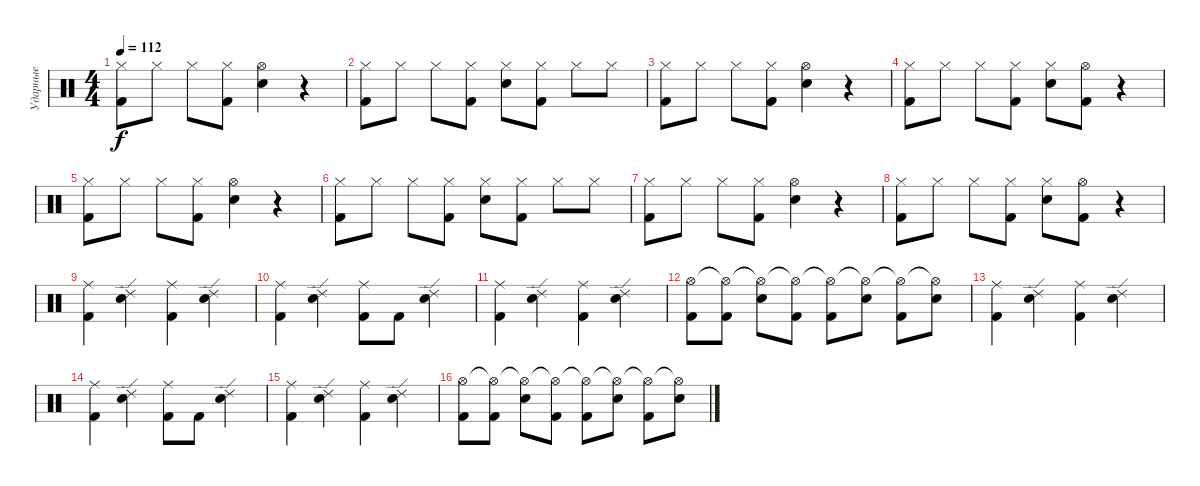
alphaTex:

\track ("Ударные" "Ударные") {instrument percussion}
\staff {score}
\articulation defaults
\ts (4 4)
\tempo 112
\clef neutral
\ks c
("Hi-Hat (closed)" "Kick (hit) 2").8{dy f} "Hi-Hat (closed)".8 "Hi-Hat (closed)".8 ("Hi-Hat (closed)" "Kick (hit) 2").8 ("Hi-Hat (open)" "Snare (hit) 2").4 r.4 |
("Hi-Hat (closed)" "Kick (hit) 2").8 "Hi-Hat (closed)".8 "Hi-Hat (closed)".8 ("Hi-Hat (closed)" "Kick (hit) 2").8 ("Hi-Hat (closed)" "Snare (hit) 2").8 ("Hi-Hat (closed)" "Kick (hit) 2").8 "Hi-Hat (closed)".8 "Hi-Hat (closed)".8 |
("Hi-Hat (closed)" "Kick (hit) 2").8 "Hi-Hat (closed)".8 "Hi-Hat (closed)".8 ("Hi-Hat (closed)" "Kick (hit) 2").8 ("Hi-Hat (open)" "Snare (hit) 2").4 r.4 |
("Hi-Hat (closed)" "Kick (hit) 2").8 "Hi-Hat (closed)".8 "Hi-Hat (closed)".8 ("Hi-Hat (closed)" "Kick (hit) 2").8 ("Hi-Hat (closed)" "Snare (hit) 2").8 ("Hi-Hat (open)" "Kick (hit) 2").8 r.4 |
("Hi-Hat (closed)" "Kick (hit) 2").8 "Hi-Hat (closed)".8 "Hi-Hat (closed)".8 ("Hi-Hat (closed)" "Kick (hit) 2").8 ("Hi-Hat (open)" "Snare (hit) 2").4 r.4 |
("Hi-Hat (closed)" "Kick (hit) 2").8 "Hi-Hat (closed)".8 "Hi-Hat (closed)".8 ("Hi-Hat (closed)" "Kick (hit) 2").8 ("Hi-Hat (closed)" "Snare (hit) 2").8 ("Hi-Hat (closed)" "Kick (hit) 2").8 "Hi-Hat (closed)".8 "Hi-Hat (closed)".8 |
("Hi-Hat (closed)" "Kick (hit) 2").8 "Hi-Hat (closed)".8 "Hi-Hat (closed)".8 ("Hi-Hat (closed)" "Kick (hit) 2").8 ("Hi-Hat (open)" "Snare (hit) 2").4 r.4 |
("Hi-Hat (closed)" "Kick (hit) 2").8 "Hi-Hat (closed)".8 "Hi-Hat (closed)".8 ("Hi-Hat (closed)" "Kick (hit) 2").8 ("Hi-Hat (closed)" "Snare (hit) 2").8 ("Hi-Hat (open)" "Kick (hit) 2").8 r.4 |
("Ride (middle)" "Kick (hit) 2").4 ("Ride (edge) 2" "Snare (hit) 2").4 ("Ride (middle)" "Kick (hit) 2").4 ("Ride (edge) 2" "Snare (hit) 2").4 |
("Ride (middle)" "Kick (hit) 2").4 ("Ride (edge) 2" "Snare (hit) 2").4 ("Ride (middle)" "Kick (hit) 2").8 "Kick (hit) 2".8 ("Ride (edge) 2" "Snare (hit) 2").4 |
("Ride (middle)" "Kick (hit) 2").4 ("Ride (edge) 2" "Snare (hit) 2").4 ("Ride (middle)" "Kick (hit) 2").4 ("Ride (edge) 2" "Snare (hit) 2").4 |
("Hi-Hat (open)" "Kick (hit) 2").8 ("Hi-Hat (open)"{t} "Kick (hit) 2").8 ("Hi-Hat (open)"{t} "Snare (hit) 2").8 ("Hi-Hat (open)"{t} "Kick (hit) 2").8 ("Hi-Hat (open)"{t} "Kick (hit) 2").8 ("Hi-Hat (open)"{t} "Snare (hit) 2").8 ("Hi-Hat (open)"{t} "Kick (hit) 2").8 ("Hi-Hat (open)"{t} "Snare (hit) 2").8 |
("Ride (middle)" "Kick (hit) 2").4 ("Ride (edge) 2" "Snare (hit) 2").4 ("Ride (middle)" "Kick (hit) 2").4 ("Ride (edge) 2" "Snare (hit) 2").4 |
("Ride (middle)" "Kick (hit) 2").4 ("Ride (edge) 2" "Snare (hit) 2").4 ("Ride (middle)" "Kick (hit) 2").8 "Kick (hit) 2".8 ("Ride (edge) 2" "Snare (hit) 2").4 |
("Ride (middle)" "Kick (hit) 2").4 ("Ride (edge) 2" "Snare (hit) 2").4 ("Ride (middle)" "Kick (hit) 2").4 ("Ride (edge) 2" "Snare (hit) 2").4 |
("Hi-Hat (open)" "Kick (hit) 2").8 ("Hi-Hat (open)"{t} "Kick (hit) 2").8 ("Hi-Hat (open)"{t} "Snare (hit) 2").8 ("Hi-Hat (open)"{t} "Kick (hit) 2").8 ("Hi-Hat (open)"{t} "Kick (hit) 2").8 ("Hi-Hat (open)"{t} "Snare (hit) 2").8 ("Hi-Hat (open)"{t} "Kick (hit) 2").8 ("Hi-Hat (open)"{t} "Snare (hit) 2").8
